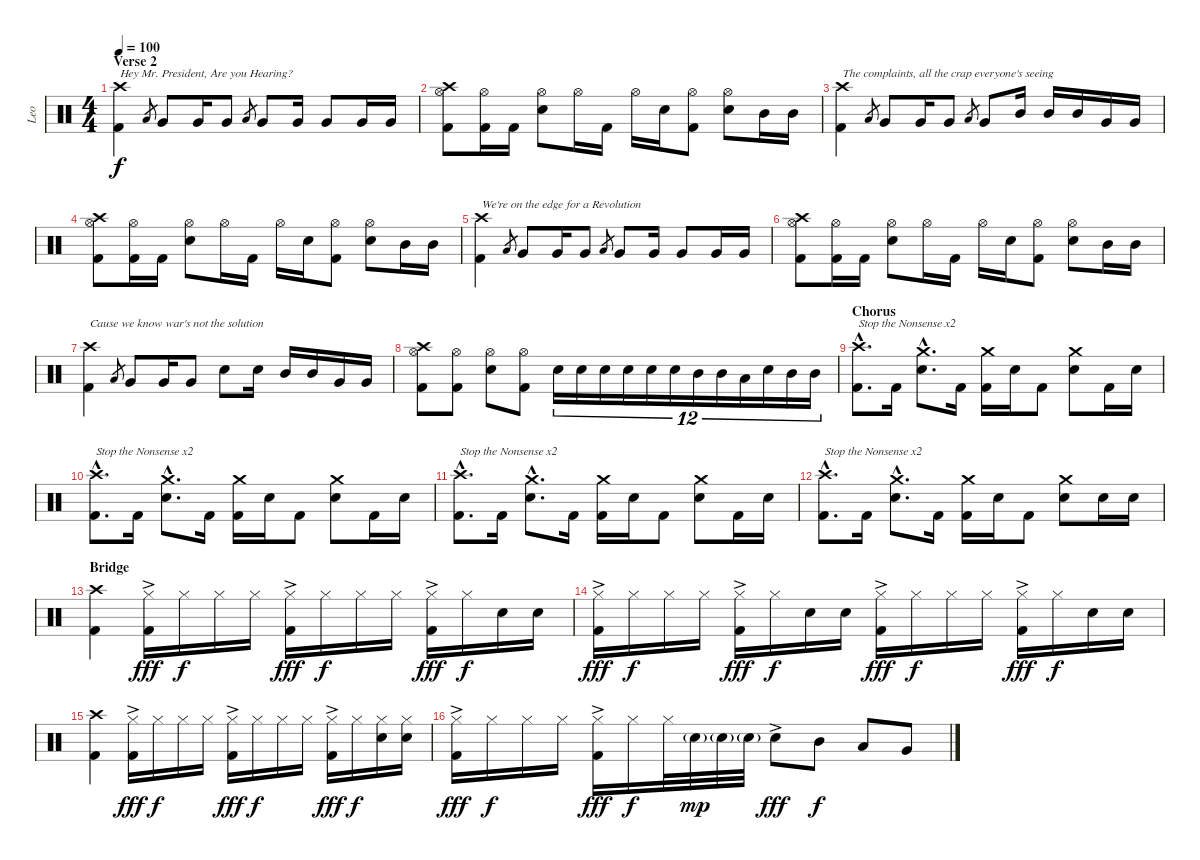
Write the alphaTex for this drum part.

\track ("Leo" "Leo") {instrument percussion}
\staff {score}
\articulation defaults
\ts (4 4)
\section ("" "Verse 2")
\tempo 100
\clef neutral
\ks c
("Crash high (hit)" "Kick (hit) 2").4{txt "Hey Mr. President, Are you Hearing?" dy f} "Low Tom (hit)".8{gr} "Very Low Tom (hit)".8 "Very Low Tom (hit)".16 "Very Low Tom (hit)".8 "Low Tom (hit)".8{gr} "Very Low Tom (hit)".8 "Very Low Tom (hit)".16 "Very Low Tom (hit)".8 "Very Low Tom (hit)".16 "Very Low Tom (hit)".16 |
("Hi-Hat (open)" "Crash high (hit)" "Kick (hit) 2").8 ("Hi-Hat (open)" "Kick (hit) 2").16 "Kick (hit) 2".16 ("Hi-Hat (open)" "Electric Snare (hit)").8 "Hi-Hat (open)".16 "Kick (hit) 2".16 "Hi-Hat (open)".16 "Electric Snare (hit)".16 ("Hi-Hat (open)" "Kick (hit) 2").8 ("Hi-Hat (open)" "Electric Snare (hit)").8 "Mid Tom (hit)".16 "Mid Tom (hit)".16 |
("Crash high (hit)" "Kick (hit) 2").4{txt "The complaints, all the crap everyone's seeing"} "Low Tom (hit)".8{gr} "Very Low Tom (hit)".8 "Very Low Tom (hit)".16 "Very Low Tom (hit)".8 "Low Tom (hit)".8{gr} "Very Low Tom (hit)".8 "Mid Tom (hit)".16 "Mid Tom (hit)".16 "Mid Tom (hit)".16 "Very Low Tom (hit)".16 "Very Low Tom (hit)".16 |
("Hi-Hat (open)" "Crash high (hit)" "Kick (hit) 2").8 ("Hi-Hat (open)" "Kick (hit) 2").16 "Kick (hit) 2".16 ("Hi-Hat (open)" "Electric Snare (hit)").8 "Hi-Hat (open)".16 "Kick (hit) 2".16 "Hi-Hat (open)".16 "Electric Snare (hit)".16 ("Hi-Hat (open)" "Kick (hit) 2").8 ("Hi-Hat (open)" "Electric Snare (hit)").8 "Mid Tom (hit)".16 "Mid Tom (hit)".16 |
("Crash high (hit)" "Kick (hit) 2").4{txt "We're on the edge for a Revolution"} "Low Tom (hit)".8{gr} "Very Low Tom (hit)".8 "Very Low Tom (hit)".16 "Very Low Tom (hit)".8 "Low Tom (hit)".8{gr} "Very Low Tom (hit)".8 "Very Low Tom (hit)".16 "Very Low Tom (hit)".8 "Very Low Tom (hit)".16 "Very Low Tom (hit)".16 |
("Hi-Hat (open)" "Crash high (hit)" "Kick (hit) 2").8 ("Hi-Hat (open)" "Kick (hit) 2").16 "Kick (hit) 2".16 ("Hi-Hat (open)" "Electric Snare (hit)").8 "Hi-Hat (open)".16 "Kick (hit) 2".16 "Hi-Hat (open)".16 "Electric Snare (hit)".16 ("Hi-Hat (open)" "Kick (hit) 2").8 ("Hi-Hat (open)" "Electric Snare (hit)").8 "Mid Tom (hit)".16 "Mid Tom (hit)".16 |
("Crash high (hit)" "Kick (hit) 2").4{txt "Cause we know war's not the solution"} "Low Tom (hit)".8{gr} "Very Low Tom (hit)".8 "Very Low Tom (hit)".16 "Very Low Tom (hit)".8 "Electric Snare (hit)".8 "Electric Snare (hit)".16 "Mid Tom (hit)".16 "Mid Tom (hit)".16 "Very Low Tom (hit)".16 "Very Low Tom (hit)".16 |
("Hi-Hat (open)" "Crash high (hit)" "Kick (hit) 2").8 ("Hi-Hat (open)" "Kick (hit) 2").8 ("Hi-Hat (open)" "Electric Snare (hit)").8 ("Hi-Hat (open)" "Kick (hit) 2").8 "Electric Snare (hit)".16{tu (12 8)} "Electric Snare (hit)".16{tu (12 8)} "Electric Snare (hit)".16{tu (12 8)} "Electric Snare (hit)".16{tu (12 8)} "Electric Snare (hit)".16{tu (12 8)} "Electric Snare (hit)".16{tu (12 8)} "Mid Tom (hit)".16{tu (12 8)} "Mid Tom (hit)".16{tu (12 8)} "Low Floor Tom (hit)".16{tu (12 8)} "Electric Snare (hit)".16{tu (12 8)} "Mid Tom (hit)".16{tu (12 8)} "Mid Tom (hit)".16{tu (12 8)} |
\section ("" "Chorus")
("Crash high (hit)"{hac} "Kick (hit) 2"{hac}).8{d txt "Stop the Nonsense x2"} "Kick (hit) 2".16 ("Crash medium (hit)"{hac} "Electric Snare (hit)"{hac}).8{d} "Kick (hit) 2".16 ("Crash medium (hit)" "Kick (hit) 2").16 "Electric Snare (hit)".16 "Kick (hit) 2".8 ("Crash medium (hit)" "Electric Snare (hit)").8 "Kick (hit) 2".16 "Electric Snare (hit)".16 |
("Crash high (hit)"{hac} "Kick (hit) 2"{hac}).8{d txt "Stop the Nonsense x2"} "Kick (hit) 2".16 ("Crash medium (hit)"{hac} "Electric Snare (hit)"{hac}).8{d} "Kick (hit) 2".16 ("Crash medium (hit)" "Kick (hit) 2").16 "Electric Snare (hit)".16 "Kick (hit) 2".8 ("Crash medium (hit)" "Electric Snare (hit)").8 "Kick (hit) 2".16 "Electric Snare (hit)".16 |
("Crash high (hit)"{hac} "Kick (hit) 2"{hac}).8{d txt "Stop the Nonsense x2"} "Kick (hit) 2".16 ("Crash medium (hit)"{hac} "Electric Snare (hit)"{hac}).8{d} "Kick (hit) 2".16 ("Crash medium (hit)" "Kick (hit) 2").16 "Electric Snare (hit)".16 "Kick (hit) 2".8 ("Crash medium (hit)" "Electric Snare (hit)").8 "Kick (hit) 2".16 "Electric Snare (hit)".16 |
("Crash high (hit)"{hac} "Kick (hit) 2"{hac}).8{d txt "Stop the Nonsense x2"} "Kick (hit) 2".16 ("Crash medium (hit)"{hac} "Electric Snare (hit)"{hac}).8{d} "Kick (hit) 2".16 ("Crash medium (hit)" "Kick (hit) 2").16 "Electric Snare (hit)".16 "Kick (hit) 2".8 ("Crash medium (hit)" "Electric Snare (hit)").8 "Electric Snare (hit)".16 "Electric Snare (hit)".16 |
\section ("" "Bridge")
("Crash high (hit)" "Kick (hit) 2").4 ("Hi-Hat (closed)"{ac} "Kick (hit) 2").16{dy fff} "Hi-Hat (closed)".16{dy f} "Hi-Hat (closed)".16 "Hi-Hat (closed)".16 ("Hi-Hat (closed)"{ac} "Kick (hit) 2").16{dy fff} "Hi-Hat (closed)".16{dy f} "Hi-Hat (closed)".16 "Hi-Hat (closed)".16 ("Hi-Hat (closed)"{ac} "Kick (hit) 2").16{dy fff} "Hi-Hat (closed)".16{dy f} "Electric Snare (hit)".16 "Electric Snare (hit)".16 |
("Hi-Hat (closed)"{ac} "Kick (hit) 2").16{dy fff} "Hi-Hat (closed)".16{dy f} "Hi-Hat (closed)".16 "Hi-Hat (closed)".16 ("Hi-Hat (closed)"{ac} "Kick (hit) 2").16{dy fff} "Hi-Hat (closed)".16{dy f} "Electric Snare (hit)".16 "Electric Snare (hit)".16 ("Hi-Hat (closed)"{ac} "Kick (hit) 2").16{dy fff} "Hi-Hat (closed)".16{dy f} "Hi-Hat (closed)".16 "Hi-Hat (closed)".16 ("Hi-Hat (closed)"{ac} "Kick (hit) 2").16{dy fff} "Hi-Hat (closed)".16{dy f} "Electric Snare (hit)".16 "Electric Snare (hit)".16 |
("Crash high (hit)" "Kick (hit) 2").4 ("Hi-Hat (closed)"{ac} "Kick (hit) 2").16{dy fff} "Hi-Hat (closed)".16{dy f} "Hi-Hat (closed)".16 "Hi-Hat (closed)".16 ("Hi-Hat (closed)"{ac} "Kick (hit) 2").16{dy fff} "Hi-Hat (closed)".16{dy f} "Hi-Hat (closed)".16 "Hi-Hat (closed)".16 ("Hi-Hat (closed)"{ac} "Kick (hit) 2").16{dy fff} "Hi-Hat (closed)".16{dy f} ("Hi-Hat (closed)" "Electric Snare (hit)").16 ("Hi-Hat (closed)" "Electric Snare (hit)").16 |
("Hi-Hat (closed)"{ac} "Kick (hit) 2").16{dy fff} "Hi-Hat (closed)".16{dy f} "Hi-Hat (closed)".16 "Hi-Hat (closed)".16 ("Hi-Hat (closed)"{ac} "Kick (hit) 2").16{dy fff} "Hi-Hat (closed)".16{dy f} "Hi-Hat (closed)".32 "Electric Snare (hit)"{g}.32{dy mp} "Electric Snare (hit)"{g}.32 "Electric Snare (hit)"{g}.32 "Electric Snare (hit)"{ac}.8{dy fff} "Mid Tom (hit)".8{dy f} "Low Tom (hit)".8 "Very Low Tom (hit)".8
